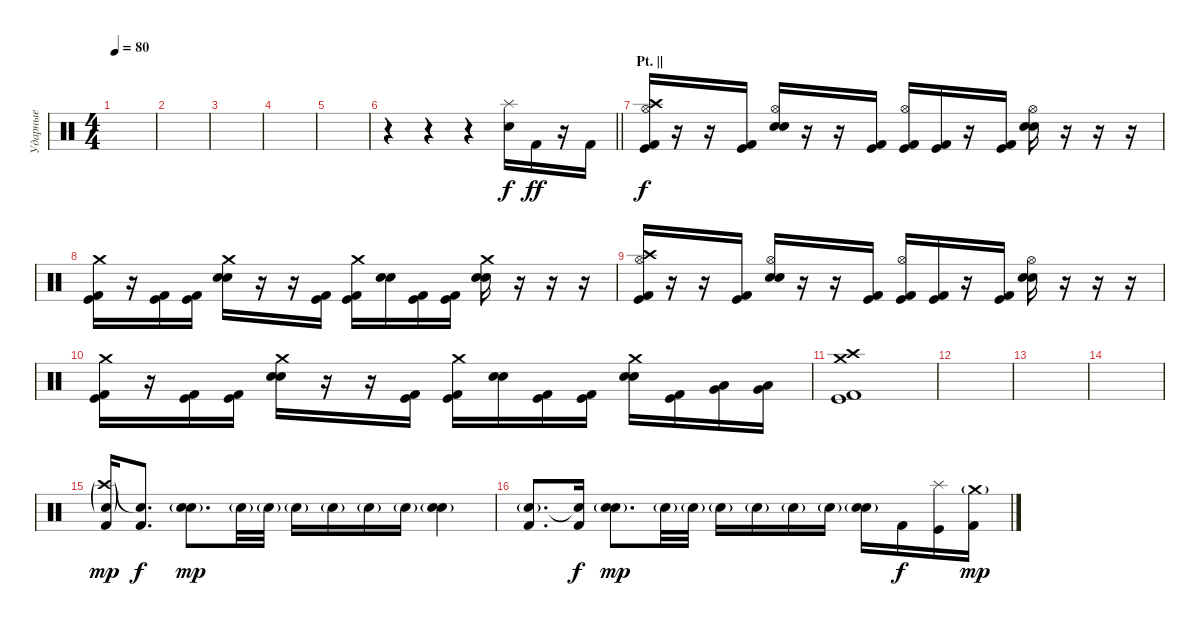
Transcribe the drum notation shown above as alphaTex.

\track ("Ударные" "Ударные") {instrument percussion}
\staff {score}
\articulation defaults
\ts (4 4)
\tempo 80
\clef neutral
\ks c
|
|
|
|
|
\barLineRight lightlight
r.4 r.4 r.4 ("Splash (hit)" "Electric Snare (hit)").16 "Kick (hit) 2".16{dy ff} r.16 "Kick (hit) 2".16 |
\section ("" "Pt. ||")
("Hi-Hat (open)" "Crash high (hit)" "Kick (hit) 2" "Kick (hit)").16{dy f} r.16 r.16 ("Kick (hit) 2" "Kick (hit)").16 ("Hi-Hat (open)" "Electric Snare (hit)" "Snare (hit)").16 r.16 r.16 ("Kick (hit) 2" "Kick (hit)").16 ("Hi-Hat (open)" "Kick (hit) 2" "Kick (hit)").16 ("Kick (hit) 2" "Kick (hit)").16 r.16 ("Kick (hit) 2" "Kick (hit)").16 ("Hi-Hat (open)" "Electric Snare (hit)" "Snare (hit)").16 r.16 r.16 r.16 |
("Crash medium (hit)" "Kick (hit) 2" "Kick (hit)").16 r.16 ("Kick (hit) 2" "Kick (hit)").16 ("Kick (hit) 2" "Kick (hit)").16 ("Crash medium (hit)" "Electric Snare (hit)" "Snare (hit)").16 r.16 r.16 ("Kick (hit) 2" "Kick (hit)").16 ("Crash medium (hit)" "Kick (hit) 2" "Kick (hit)").16 ("Electric Snare (hit)" "Snare (hit)").16 ("Kick (hit) 2" "Kick (hit)").16 ("Kick (hit) 2" "Kick (hit)").16 ("Crash medium (hit)" "Electric Snare (hit)" "Snare (hit)").16 r.16 r.16 r.16 |
("Hi-Hat (open)" "Crash high (hit)" "Kick (hit) 2" "Kick (hit)").16 r.16 r.16 ("Kick (hit) 2" "Kick (hit)").16 ("Hi-Hat (open)" "Electric Snare (hit)" "Snare (hit)").16 r.16 r.16 ("Kick (hit) 2" "Kick (hit)").16 ("Hi-Hat (open)" "Kick (hit) 2" "Kick (hit)").16 ("Kick (hit) 2" "Kick (hit)").16 r.16 ("Kick (hit) 2" "Kick (hit)").16 ("Hi-Hat (open)" "Electric Snare (hit)" "Snare (hit)").16 r.16 r.16 r.16 |
("Crash medium (hit)" "Kick (hit) 2" "Kick (hit)").16 r.16 ("Kick (hit) 2" "Kick (hit)").16 ("Kick (hit) 2" "Kick (hit)").16 ("Crash medium (hit)" "Electric Snare (hit)" "Snare (hit)").16 r.16 r.16 ("Kick (hit) 2" "Kick (hit)").16 ("Crash medium (hit)" "Kick (hit) 2" "Kick (hit)").16 ("Electric Snare (hit)" "Snare (hit)").16 ("Kick (hit) 2" "Kick (hit)").16 ("Kick (hit) 2" "Kick (hit)").16 ("Crash medium (hit)" "Electric Snare (hit)" "Snare (hit)").16 ("Kick (hit) 2" "Kick (hit)").16 ("Low Tom (hit)" "Very Low Tom (hit)").16 ("Very Low Tom (hit)" "Low Floor Tom (hit)").16 |
("Crash high (hit)" "Crash medium (hit)" "Kick (hit) 2" "Kick (hit)").1 |
|
|
|
("Crash high (hit)"{g} "Snare (hit)"{g} "Kick (hit) 2").16{dy mp} ("Snare (hit)"{t} "Kick (hit) 2").8{d dy f} ("Snare (hit)"{g} "Electric Snare (hit)"{g}).8{d dy mp} "Snare (hit) 2"{g}.32 "Snare (hit) 2"{g}.32 "Electric Snare (hit)"{g}.16 "Snare (hit) 2"{g}.16 "Electric Snare (hit)"{g}.16 "Electric Snare (hit)"{g}.16 ("Snare (hit)"{g} "Electric Snare (hit)"{g}).4 |
("Snare (hit)"{g} "Kick (hit) 2").8{d} ("Snare (hit)"{t} "Kick (hit) 2").16{dy f} ("Snare (hit)"{g} "Electric Snare (hit)"{g}).8{d dy mp} "Snare (hit) 2"{g}.32 "Snare (hit) 2"{g}.32 "Electric Snare (hit)"{g}.16 "Snare (hit) 2"{g}.16 "Electric Snare (hit)"{g}.16 "Electric Snare (hit)"{g}.16 ("Snare (hit)"{g} "Electric Snare (hit)"{g}).16 "Kick (hit) 2".16{dy f} ("Splash (hit)" "Kick (hit)").16 ("Crash medium (hit)"{g} "Kick (hit) 2").16{dy mp}
